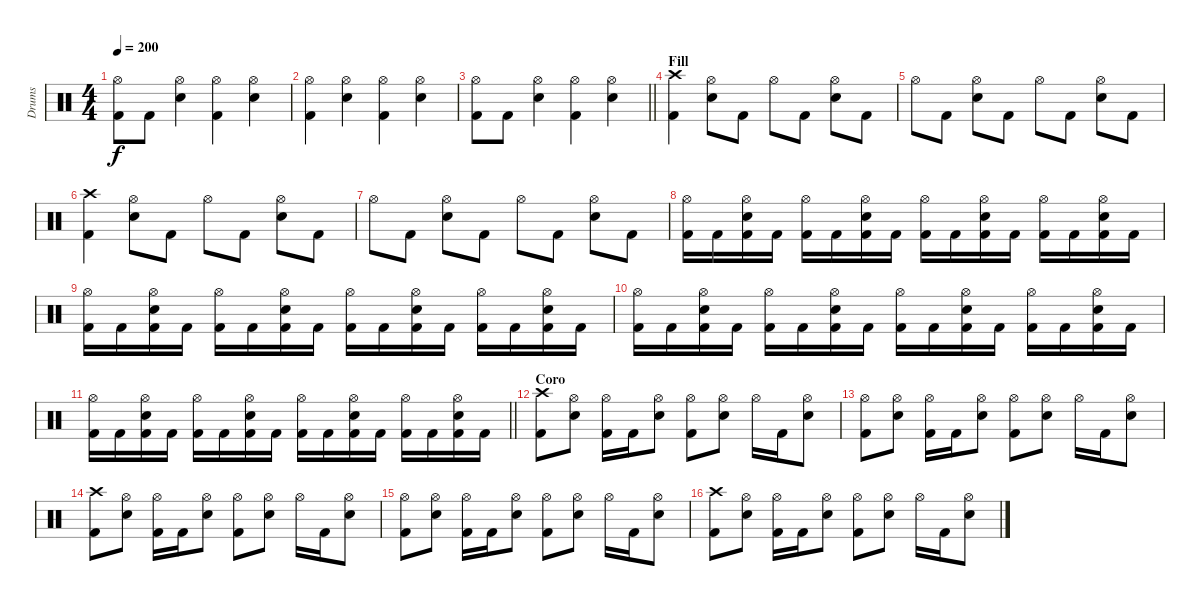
\track ("Drums" "Drums") {instrument percussion}
\staff {score}
\articulation defaults
\ts (4 4)
\tempo 200
\clef neutral
\ks c
("Hi-Hat (open)" "Kick (hit) 2").8{dy f} "Kick (hit) 2".8 ("Hi-Hat (open)" "Electric Snare (hit)").4 ("Hi-Hat (open)" "Kick (hit) 2").4 ("Hi-Hat (open)" "Electric Snare (hit)").4 |
("Hi-Hat (open)" "Kick (hit) 2").4 ("Hi-Hat (open)" "Electric Snare (hit)").4 ("Hi-Hat (open)" "Kick (hit) 2").4 ("Hi-Hat (open)" "Electric Snare (hit)").4 |
\barLineRight lightlight
("Hi-Hat (open)" "Kick (hit) 2").8 "Kick (hit) 2".8 ("Hi-Hat (open)" "Electric Snare (hit)").4 ("Hi-Hat (open)" "Kick (hit) 2").4 ("Hi-Hat (open)" "Electric Snare (hit)").4 |
\section ("" "Fill")
("Crash high (hit)" "Kick (hit) 2").4 ("Hi-Hat (open)" "Electric Snare (hit)").8 "Kick (hit) 2".8 "Hi-Hat (open)".8 "Kick (hit) 2".8 ("Hi-Hat (open)" "Electric Snare (hit)").8 "Kick (hit) 2".8 |
"Hi-Hat (open)".8 "Kick (hit) 2".8 ("Hi-Hat (open)" "Electric Snare (hit)").8 "Kick (hit) 2".8 "Hi-Hat (open)".8 "Kick (hit) 2".8 ("Hi-Hat (open)" "Electric Snare (hit)").8 "Kick (hit) 2".8 |
("Crash high (hit)" "Kick (hit) 2").4 ("Hi-Hat (open)" "Electric Snare (hit)").8 "Kick (hit) 2".8 "Hi-Hat (open)".8 "Kick (hit) 2".8 ("Hi-Hat (open)" "Electric Snare (hit)").8 "Kick (hit) 2".8 |
"Hi-Hat (open)".8 "Kick (hit) 2".8 ("Hi-Hat (open)" "Electric Snare (hit)").8 "Kick (hit) 2".8 "Hi-Hat (open)".8 "Kick (hit) 2".8 ("Hi-Hat (open)" "Electric Snare (hit)").8 "Kick (hit) 2".8 |
("Hi-Hat (open)" "Kick (hit) 2").16 "Kick (hit) 2".16 ("Hi-Hat (open)" "Electric Snare (hit)" "Kick (hit) 2").16 "Kick (hit) 2".16 ("Hi-Hat (open)" "Kick (hit) 2").16 "Kick (hit) 2".16 ("Hi-Hat (open)" "Electric Snare (hit)" "Kick (hit) 2").16 "Kick (hit) 2".16 ("Hi-Hat (open)" "Kick (hit) 2").16 "Kick (hit) 2".16 ("Hi-Hat (open)" "Electric Snare (hit)" "Kick (hit) 2").16 "Kick (hit) 2".16 ("Hi-Hat (open)" "Kick (hit) 2").16 "Kick (hit) 2".16 ("Hi-Hat (open)" "Electric Snare (hit)" "Kick (hit) 2").16 "Kick (hit) 2".16 |
("Hi-Hat (open)" "Kick (hit) 2").16 "Kick (hit) 2".16 ("Hi-Hat (open)" "Electric Snare (hit)" "Kick (hit) 2").16 "Kick (hit) 2".16 ("Hi-Hat (open)" "Kick (hit) 2").16 "Kick (hit) 2".16 ("Hi-Hat (open)" "Electric Snare (hit)" "Kick (hit) 2").16 "Kick (hit) 2".16 ("Hi-Hat (open)" "Kick (hit) 2").16 "Kick (hit) 2".16 ("Hi-Hat (open)" "Electric Snare (hit)" "Kick (hit) 2").16 "Kick (hit) 2".16 ("Hi-Hat (open)" "Kick (hit) 2").16 "Kick (hit) 2".16 ("Hi-Hat (open)" "Electric Snare (hit)" "Kick (hit) 2").16 "Kick (hit) 2".16 |
("Hi-Hat (open)" "Kick (hit) 2").16 "Kick (hit) 2".16 ("Hi-Hat (open)" "Electric Snare (hit)" "Kick (hit) 2").16 "Kick (hit) 2".16 ("Hi-Hat (open)" "Kick (hit) 2").16 "Kick (hit) 2".16 ("Hi-Hat (open)" "Electric Snare (hit)" "Kick (hit) 2").16 "Kick (hit) 2".16 ("Hi-Hat (open)" "Kick (hit) 2").16 "Kick (hit) 2".16 ("Hi-Hat (open)" "Electric Snare (hit)" "Kick (hit) 2").16 "Kick (hit) 2".16 ("Hi-Hat (open)" "Kick (hit) 2").16 "Kick (hit) 2".16 ("Hi-Hat (open)" "Electric Snare (hit)" "Kick (hit) 2").16 "Kick (hit) 2".16 |
\barLineRight lightlight
("Hi-Hat (open)" "Kick (hit) 2").16 "Kick (hit) 2".16 ("Hi-Hat (open)" "Electric Snare (hit)" "Kick (hit) 2").16 "Kick (hit) 2".16 ("Hi-Hat (open)" "Kick (hit) 2").16 "Kick (hit) 2".16 ("Hi-Hat (open)" "Electric Snare (hit)" "Kick (hit) 2").16 "Kick (hit) 2".16 ("Hi-Hat (open)" "Kick (hit) 2").16 "Kick (hit) 2".16 ("Hi-Hat (open)" "Electric Snare (hit)" "Kick (hit) 2").16 "Kick (hit) 2".16 ("Hi-Hat (open)" "Kick (hit) 2").16 "Kick (hit) 2".16 ("Hi-Hat (open)" "Electric Snare (hit)" "Kick (hit) 2").16 "Kick (hit) 2".16 |
\section ("" "Coro")
("Crash high (hit)" "Kick (hit) 2").8 ("Hi-Hat (open)" "Electric Snare (hit)").8 ("Hi-Hat (open)" "Kick (hit) 2").16 "Kick (hit) 2".16 ("Hi-Hat (open)" "Electric Snare (hit)").8 ("Hi-Hat (open)" "Kick (hit) 2").8 ("Hi-Hat (open)" "Electric Snare (hit)").8 "Hi-Hat (open)".16 "Kick (hit) 2".16 ("Hi-Hat (open)" "Electric Snare (hit)").8 |
("Hi-Hat (open)" "Kick (hit) 2").8 ("Hi-Hat (open)" "Electric Snare (hit)").8 ("Hi-Hat (open)" "Kick (hit) 2").16 "Kick (hit) 2".16 ("Hi-Hat (open)" "Electric Snare (hit)").8 ("Hi-Hat (open)" "Kick (hit) 2").8 ("Hi-Hat (open)" "Electric Snare (hit)").8 "Hi-Hat (open)".16 "Kick (hit) 2".16 ("Hi-Hat (open)" "Electric Snare (hit)").8 |
("Crash high (hit)" "Kick (hit) 2").8 ("Hi-Hat (open)" "Electric Snare (hit)").8 ("Hi-Hat (open)" "Kick (hit) 2").16 "Kick (hit) 2".16 ("Hi-Hat (open)" "Electric Snare (hit)").8 ("Hi-Hat (open)" "Kick (hit) 2").8 ("Hi-Hat (open)" "Electric Snare (hit)").8 "Hi-Hat (open)".16 "Kick (hit) 2".16 ("Hi-Hat (open)" "Electric Snare (hit)").8 |
("Hi-Hat (open)" "Kick (hit) 2").8 ("Hi-Hat (open)" "Electric Snare (hit)").8 ("Hi-Hat (open)" "Kick (hit) 2").16 "Kick (hit) 2".16 ("Hi-Hat (open)" "Electric Snare (hit)").8 ("Hi-Hat (open)" "Kick (hit) 2").8 ("Hi-Hat (open)" "Electric Snare (hit)").8 "Hi-Hat (open)".16 "Kick (hit) 2".16 ("Hi-Hat (open)" "Electric Snare (hit)").8 |
("Crash high (hit)" "Kick (hit) 2").8 ("Hi-Hat (open)" "Electric Snare (hit)").8 ("Hi-Hat (open)" "Kick (hit) 2").16 "Kick (hit) 2".16 ("Hi-Hat (open)" "Electric Snare (hit)").8 ("Hi-Hat (open)" "Kick (hit) 2").8 ("Hi-Hat (open)" "Electric Snare (hit)").8 "Hi-Hat (open)".16 "Kick (hit) 2".16 ("Hi-Hat (open)" "Electric Snare (hit)").8
